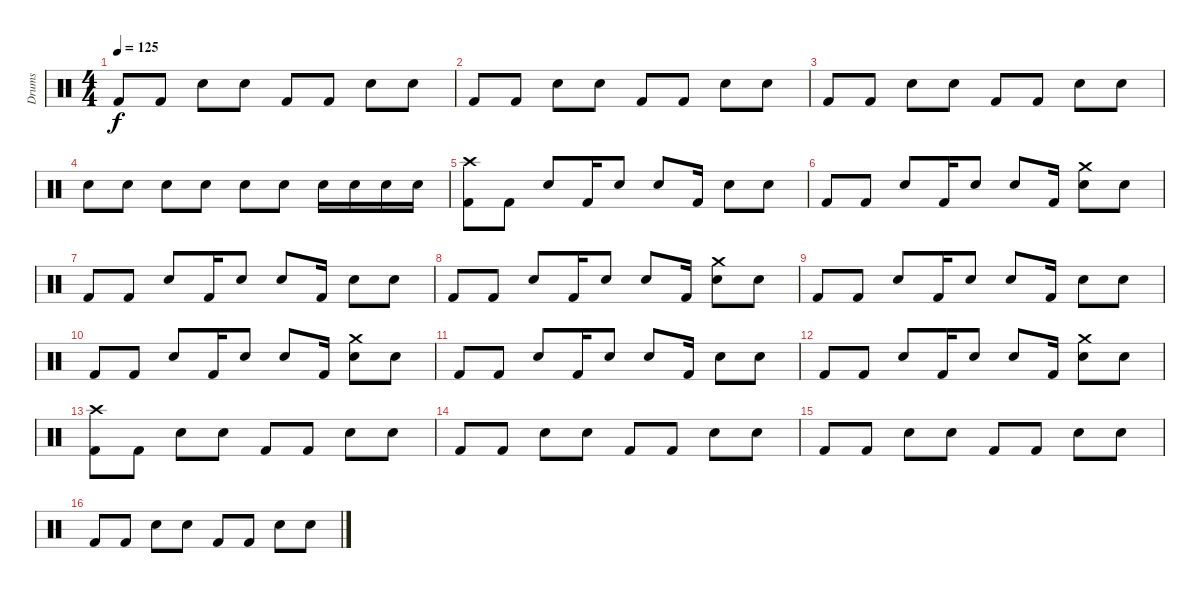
\track ("Drums" "Drums") {instrument percussion}
\staff {score}
\articulation defaults
\ts (4 4)
\tempo 125
\clef neutral
\ks c "Kick (hit) 2".8{dy f} "Kick (hit) 2".8 "Electric Snare (hit)".8 "Snare (hit)".8 "Kick (hit) 2".8 "Kick (hit) 2".8 "Electric Snare (hit)".8 "Snare (hit)".8
|
"Kick (hit) 2".8 "Kick (hit) 2".8 "Electric Snare (hit)".8 "Snare (hit)".8 "Kick (hit) 2".8 "Kick (hit) 2".8 "Electric Snare (hit)".8 "Snare (hit)".8 |
"Kick (hit) 2".8 "Kick (hit) 2".8 "Electric Snare (hit)".8 "Snare (hit)".8 "Kick (hit) 2".8 "Kick (hit) 2".8 "Electric Snare (hit)".8 "Snare (hit)".8 |
"Electric Snare (hit)".8 "Electric Snare (hit)".8 "Electric Snare (hit)".8 "Electric Snare (hit)".8 "Electric Snare (hit)".8 "Electric Snare (hit)".8 "Electric Snare (hit)".16 "Electric Snare (hit)".16 "Electric Snare (hit)".16 "Electric Snare (hit)".16 |
("Crash high (hit)" "Kick (hit) 2").8 "Kick (hit) 2".8 "Snare (hit) 2".8 "Kick (hit) 2".16 "Snare (hit) 2".8 "Snare (hit) 2".8 "Kick (hit) 2".16 "Snare (hit) 2".8 "Snare (hit)".8 |
"Kick (hit) 2".8 "Kick (hit) 2".8 "Snare (hit) 2".8 "Kick (hit) 2".16 "Snare (hit) 2".8 "Snare (hit) 2".8 "Kick (hit) 2".16 ("Crash medium (hit)" "Snare (hit) 2").8 "Snare (hit)".8 |
"Kick (hit) 2".8 "Kick (hit) 2".8 "Snare (hit) 2".8 "Kick (hit) 2".16 "Snare (hit) 2".8 "Snare (hit) 2".8 "Kick (hit) 2".16 "Snare (hit) 2".8 "Snare (hit)".8 |
"Kick (hit) 2".8 "Kick (hit) 2".8 "Snare (hit) 2".8 "Kick (hit) 2".16 "Snare (hit) 2".8 "Snare (hit) 2".8 "Kick (hit) 2".16 ("Crash medium (hit)" "Snare (hit) 2").8 "Snare (hit)".8 |
"Kick (hit) 2".8 "Kick (hit) 2".8 "Snare (hit) 2".8 "Kick (hit) 2".16 "Snare (hit) 2".8 "Snare (hit) 2".8 "Kick (hit) 2".16 "Snare (hit) 2".8 "Snare (hit)".8 |
"Kick (hit) 2".8 "Kick (hit) 2".8 "Snare (hit) 2".8 "Kick (hit) 2".16 "Snare (hit) 2".8 "Snare (hit) 2".8 "Kick (hit) 2".16 ("Crash medium (hit)" "Snare (hit) 2").8 "Snare (hit)".8 |
"Kick (hit) 2".8 "Kick (hit) 2".8 "Snare (hit) 2".8 "Kick (hit) 2".16 "Snare (hit) 2".8 "Snare (hit) 2".8 "Kick (hit) 2".16 "Snare (hit) 2".8 "Snare (hit)".8 |
"Kick (hit) 2".8 "Kick (hit) 2".8 "Snare (hit) 2".8 "Kick (hit) 2".16 "Snare (hit) 2".8 "Snare (hit) 2".8 "Kick (hit) 2".16 ("Crash medium (hit)" "Snare (hit) 2").8 "Snare (hit)".8 |
("Crash high (hit)" "Kick (hit) 2").8 "Kick (hit) 2".8 "Snare (hit) 2".8 "Snare (hit)".8 "Kick (hit) 2".8 "Kick (hit) 2".8 "Snare (hit) 2".8 "Snare (hit)".8 |
"Kick (hit) 2".8 "Kick (hit) 2".8 "Snare (hit) 2".8 "Snare (hit)".8 "Kick (hit) 2".8 "Kick (hit) 2".8 "Snare (hit) 2".8 "Snare (hit)".8 |
"Kick (hit) 2".8 "Kick (hit) 2".8 "Snare (hit) 2".8 "Snare (hit)".8 "Kick (hit) 2".8 "Kick (hit) 2".8 "Snare (hit) 2".8 "Snare (hit)".8 |
"Kick (hit) 2".8 "Kick (hit) 2".8 "Snare (hit) 2".8 "Snare (hit)".8 "Kick (hit) 2".8 "Kick (hit) 2".8 "Snare (hit) 2".8 "Snare (hit)".8
